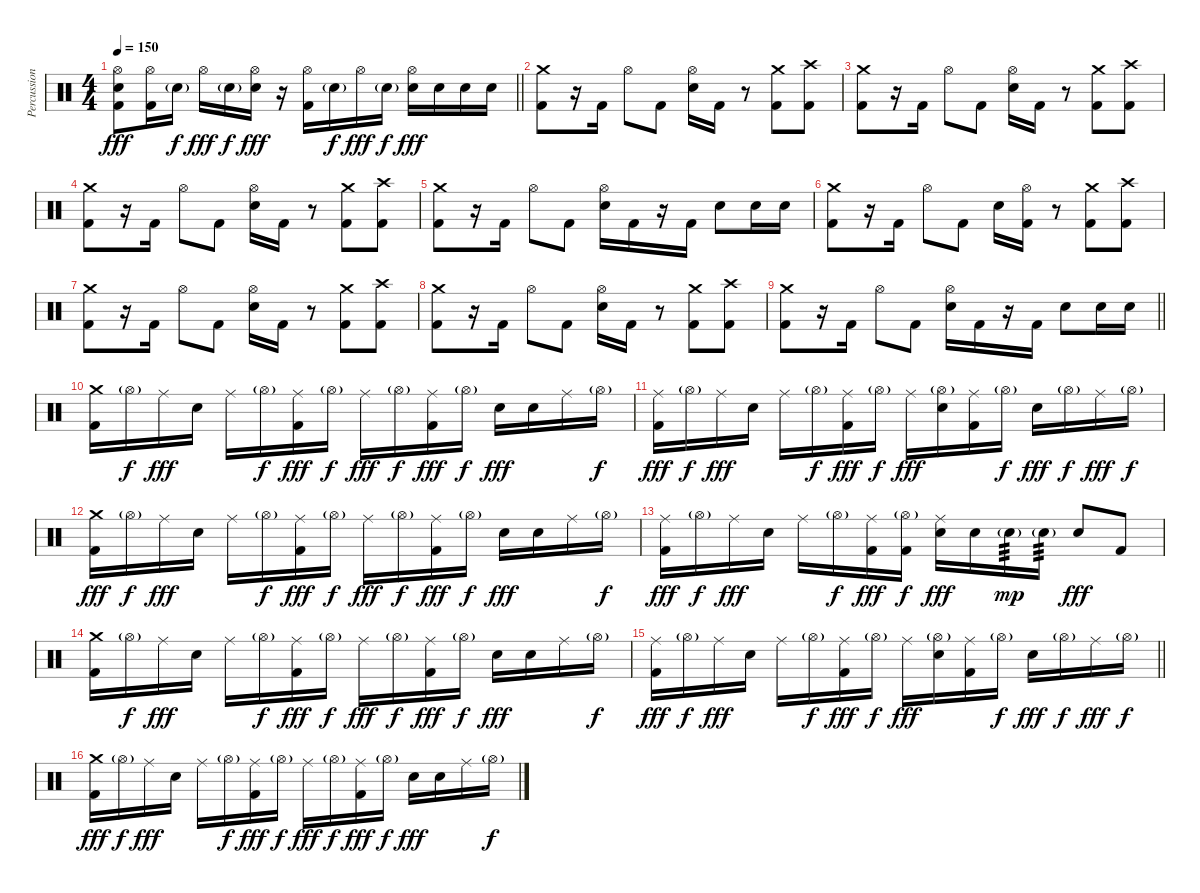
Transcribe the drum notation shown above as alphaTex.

\track ("Percussion" "Percussion") {instrument percussion}
\staff {score}
\articulation defaults
\ts (4 4)
\tempo 150
\clef neutral
\barLineRight lightlight
\ks c
("Hi-Hat (open)" "Electric Snare (hit)" "Kick (hit) 2").8{dy fff} ("Hi-Hat (open)" "Kick (hit) 2").16 "Electric Snare (hit)"{g}.16{dy f} "Hi-Hat (open)".16{dy fff} "Electric Snare (hit)"{g}.16{dy f} ("Hi-Hat (open)" "Electric Snare (hit)").16{dy fff} r.16 ("Hi-Hat (open)" "Kick (hit) 2").16 "Electric Snare (hit)"{g}.16{dy f} "Hi-Hat (open)".16{dy fff} "Electric Snare (hit)"{g}.16{dy f} ("Hi-Hat (open)" "Electric Snare (hit)").16{dy fff} "Electric Snare (hit)".16 "Electric Snare (hit)".16 "Electric Snare (hit)".16 |
\section ("" "")
("Crash medium (hit)" "Kick (hit) 2").8 r.16 "Kick (hit) 2".16 "Hi-Hat (open)".8 "Kick (hit) 2".8 ("Hi-Hat (open)" "Electric Snare (hit)").16 "Kick (hit) 2".16 r.8 ("Crash medium (hit)" "Kick (hit) 2").8 ("Crash high (hit)" "Kick (hit) 2").8 |
("Crash medium (hit)" "Kick (hit) 2").8 r.16 "Kick (hit) 2".16 "Hi-Hat (open)".8 "Kick (hit) 2".8 ("Hi-Hat (open)" "Electric Snare (hit)").16 "Kick (hit) 2".16 r.8 ("Crash medium (hit)" "Kick (hit) 2").8 ("Crash high (hit)" "Kick (hit) 2").8 |
("Crash medium (hit)" "Kick (hit) 2").8 r.16 "Kick (hit) 2".16 "Hi-Hat (open)".8 "Kick (hit) 2".8 ("Hi-Hat (open)" "Electric Snare (hit)").16 "Kick (hit) 2".16 r.8 ("Crash medium (hit)" "Kick (hit) 2").8 ("Crash high (hit)" "Kick (hit) 2").8 |
("Crash medium (hit)" "Kick (hit) 2").8 r.16 "Kick (hit) 2".16 "Hi-Hat (open)".8 "Kick (hit) 2".8 ("Hi-Hat (open)" "Electric Snare (hit)").16 "Kick (hit) 2".16 r.16 "Kick (hit) 2".16 "Electric Snare (hit)".8 "Electric Snare (hit)".16 "Electric Snare (hit)".16 |
("Crash medium (hit)" "Kick (hit) 2").8 r.16 "Kick (hit) 2".16 "Hi-Hat (open)".8 "Kick (hit) 2".8 "Electric Snare (hit)".16 ("Hi-Hat (open)" "Kick (hit) 2").16 r.8 ("Crash medium (hit)" "Kick (hit) 2").8 ("Crash high (hit)" "Kick (hit) 2").8 |
("Crash medium (hit)" "Kick (hit) 2").8 r.16 "Kick (hit) 2".16 "Hi-Hat (open)".8 "Kick (hit) 2".8 ("Hi-Hat (open)" "Electric Snare (hit)").16 "Kick (hit) 2".16 r.8 ("Crash medium (hit)" "Kick (hit) 2").8 ("Crash high (hit)" "Kick (hit) 2").8 |
("Crash medium (hit)" "Kick (hit) 2").8 r.16 "Kick (hit) 2".16 "Hi-Hat (open)".8 "Kick (hit) 2".8 ("Hi-Hat (open)" "Electric Snare (hit)").16 "Kick (hit) 2".16 r.8 ("Crash medium (hit)" "Kick (hit) 2").8 ("Crash high (hit)" "Kick (hit) 2").8 |
\barLineRight lightlight
("Crash medium (hit)" "Kick (hit) 2").8 r.16 "Kick (hit) 2".16 "Hi-Hat (open)".8 "Kick (hit) 2".8 ("Hi-Hat (open)" "Electric Snare (hit)").16 "Kick (hit) 2".16 r.16 "Kick (hit) 2".16 "Electric Snare (hit)".8 "Electric Snare (hit)".16 "Electric Snare (hit)".16 |
\section ("" "")
("Crash medium (hit)" "Kick (hit) 2").16 "Hi-Hat (open)"{g}.16{dy f} "Ride (middle)".16{dy fff} "Electric Snare (hit)".16 "Ride (middle)".16 "Hi-Hat (open)"{g}.16{dy f} ("Ride (middle)" "Kick (hit) 2").16{dy fff} "Hi-Hat (open)"{g}.16{dy f} "Ride (middle)".16{dy fff} "Hi-Hat (open)"{g}.16{dy f} ("Ride (middle)" "Kick (hit) 2").16{dy fff} "Hi-Hat (open)"{g}.16{dy f} "Electric Snare (hit)".16{dy fff} "Electric Snare (hit)".16 "Ride (middle)".16 "Hi-Hat (open)"{g}.16{dy f} |
("Ride (middle)" "Kick (hit) 2").16{dy fff} "Hi-Hat (open)"{g}.16{dy f} "Ride (middle)".16{dy fff} "Electric Snare (hit)".16 "Ride (middle)".16 "Hi-Hat (open)"{g}.16{dy f} ("Ride (middle)" "Kick (hit) 2").16{dy fff} "Hi-Hat (open)"{g}.16{dy f} "Ride (middle)".16{dy fff} ("Hi-Hat (open)"{g} "Electric Snare (hit)").16 ("Ride (middle)" "Kick (hit) 2").16 "Hi-Hat (open)"{g}.16{dy f} "Electric Snare (hit)".16{dy fff} "Hi-Hat (open)"{g}.16{dy f} "Ride (middle)".16{dy fff} "Hi-Hat (open)"{g}.16{dy f} |
("Crash medium (hit)" "Kick (hit) 2").16{dy fff} "Hi-Hat (open)"{g}.16{dy f} "Ride (middle)".16{dy fff} "Electric Snare (hit)".16 "Ride (middle)".16 "Hi-Hat (open)"{g}.16{dy f} ("Ride (middle)" "Kick (hit) 2").16{dy fff} "Hi-Hat (open)"{g}.16{dy f} "Ride (middle)".16{dy fff} "Hi-Hat (open)"{g}.16{dy f} ("Ride (middle)" "Kick (hit) 2").16{dy fff} "Hi-Hat (open)"{g}.16{dy f} "Electric Snare (hit)".16{dy fff} "Electric Snare (hit)".16 "Ride (middle)".16 "Hi-Hat (open)"{g}.16{dy f} |
("Ride (middle)" "Kick (hit) 2").16{dy fff} "Hi-Hat (open)"{g}.16{dy f} "Ride (middle)".16{dy fff} "Electric Snare (hit)".16 "Ride (middle)".16 "Hi-Hat (open)"{g}.16{dy f} ("Ride (middle)" "Kick (hit) 2").16{dy fff} ("Hi-Hat (open)"{g} "Kick (hit) 2").16{dy f} ("Ride (middle)" "Electric Snare (hit)").16{dy fff} "Electric Snare (hit)".16 "Electric Snare (hit)"{g}.16{tp 3 dy mp} "Electric Snare (hit)"{g}.16{tp 3} "Electric Snare (hit)".8{dy fff} "Kick (hit) 2".8 |
("Crash medium (hit)" "Kick (hit) 2").16 "Hi-Hat (open)"{g}.16{dy f} "Ride (middle)".16{dy fff} "Electric Snare (hit)".16 "Ride (middle)".16 "Hi-Hat (open)"{g}.16{dy f} ("Ride (middle)" "Kick (hit) 2").16{dy fff} "Hi-Hat (open)"{g}.16{dy f} "Ride (middle)".16{dy fff} "Hi-Hat (open)"{g}.16{dy f} ("Ride (middle)" "Kick (hit) 2").16{dy fff} "Hi-Hat (open)"{g}.16{dy f} "Electric Snare (hit)".16{dy fff} "Electric Snare (hit)".16 "Ride (middle)".16 "Hi-Hat (open)"{g}.16{dy f} |
\barLineRight lightlight
("Ride (middle)" "Kick (hit) 2").16{dy fff} "Hi-Hat (open)"{g}.16{dy f} "Ride (middle)".16{dy fff} "Electric Snare (hit)".16 "Ride (middle)".16 "Hi-Hat (open)"{g}.16{dy f} ("Ride (middle)" "Kick (hit) 2").16{dy fff} "Hi-Hat (open)"{g}.16{dy f} "Ride (middle)".16{dy fff} ("Hi-Hat (open)"{g} "Electric Snare (hit)").16 ("Ride (middle)" "Kick (hit) 2").16 "Hi-Hat (open)"{g}.16{dy f} "Electric Snare (hit)".16{dy fff} "Hi-Hat (open)"{g}.16{dy f} "Ride (middle)".16{dy fff} "Hi-Hat (open)"{g}.16{dy f} |
("Crash medium (hit)" "Kick (hit) 2").16{dy fff} "Hi-Hat (open)"{g}.16{dy f} "Ride (middle)".16{dy fff} "Electric Snare (hit)".16 "Ride (middle)".16 "Hi-Hat (open)"{g}.16{dy f} ("Ride (middle)" "Kick (hit) 2").16{dy fff} "Hi-Hat (open)"{g}.16{dy f} "Ride (middle)".16{dy fff} "Hi-Hat (open)"{g}.16{dy f} ("Ride (middle)" "Kick (hit) 2").16{dy fff} "Hi-Hat (open)"{g}.16{dy f} "Electric Snare (hit)".16{dy fff} "Electric Snare (hit)".16 "Ride (middle)".16 "Hi-Hat (open)"{g}.16{dy f}
